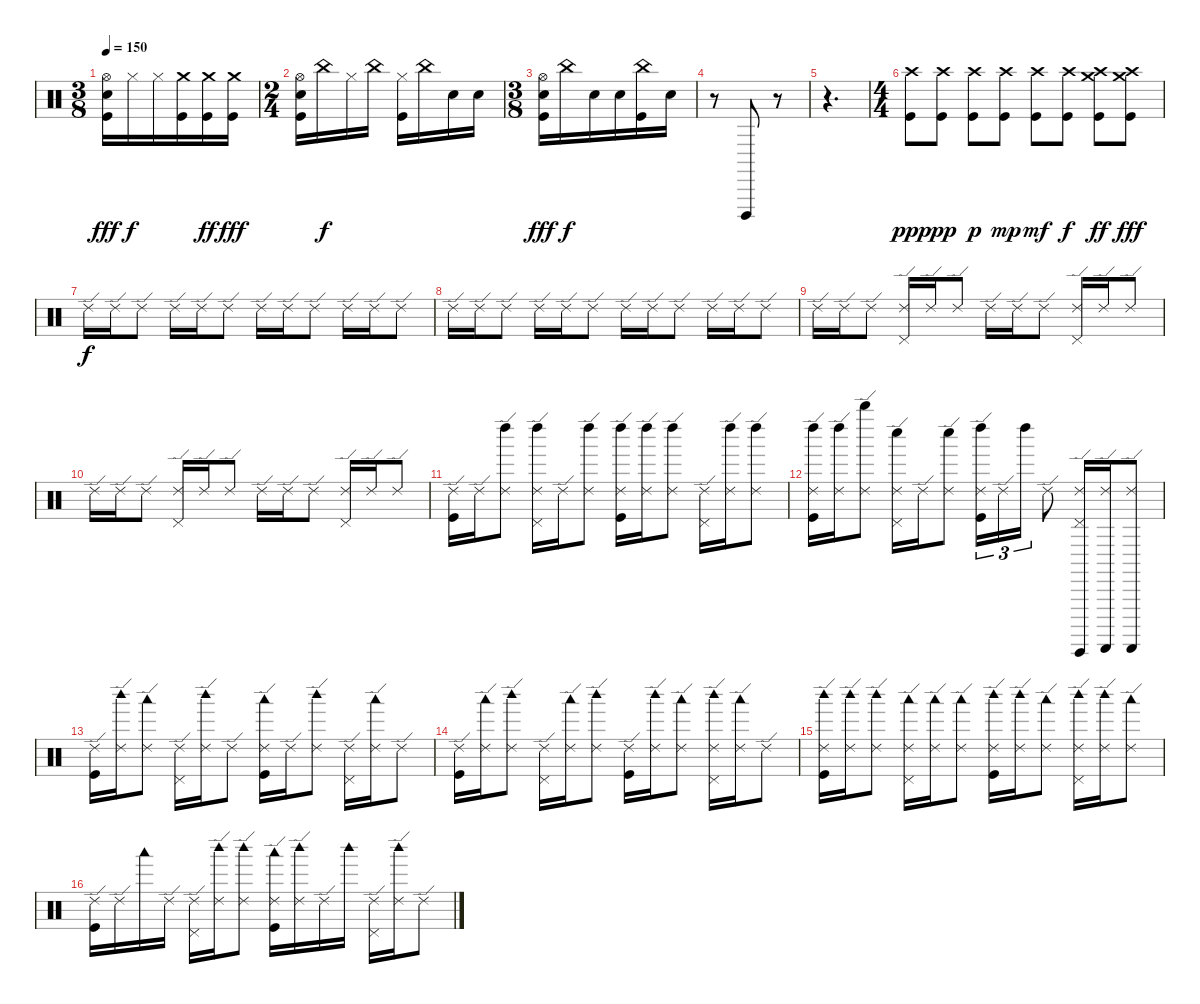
\track "" {instrument percussion}
\staff {score}
\articulation defaults
\ts (3 8)
\tempo 150
\clef neutral
\ks c
("Hi-Hat (open)" "Electric Snare (hit)" "Kick (hit)").16{dy fff} "Hi-Hat (closed)".16{dy f} "Hi-Hat (closed)".16 ("Crash medium (hit)" "Kick (hit)").16 ("Crash medium (hit)" "Kick (hit)").16{dy ff} ("Crash medium (hit)" "Kick (hit)").16{dy fff} |
\ts (2 4)
("Hi-Hat (open)" "Electric Snare (hit)" "Kick (hit)").16 "China (hit)".16{dy f} "Hi-Hat (closed)".16 "China (hit)".16 ("Hi-Hat (closed)" "Kick (hit)").16 "China (hit)".16 "Electric Snare (hit)".16 "Electric Snare (hit)".16 |
\ts (3 8)
("Hi-Hat (open)" "Electric Snare (hit)" "Kick (hit)").16{dy fff} "China (hit)".16{dy f} "Electric Snare (hit)".16 "Electric Snare (hit)".16 ("China (hit)" "Kick (hit)").16 "Electric Snare (hit)".16 |
r.8 "Cuica (open)".8 r.8 |
r.4{d} |
\ts (4 4)
("Crash high (hit)" "Kick (hit)").8{dy ppp} ("Crash high (hit)" "Kick (hit)").8{dy pp} ("Crash high (hit)" "Kick (hit)").8{dy p} ("Crash high (hit)" "Kick (hit)").8{dy mp} ("Crash high (hit)" "Kick (hit)").8{dy mf} ("Crash high (hit)" "Kick (hit)").8{dy f} ("Crash high (hit)" "Crash medium (hit)" "Kick (hit)").8{dy ff} ("Crash high (hit)" "Crash medium (hit)" "Kick (hit)").8{dy fff} |
"Ride (edge) 2".16{dy f volume 16} "Ride (edge) 2".16 "Ride (edge) 2".8 "Ride (edge) 2".16 "Ride (edge) 2".16 "Ride (edge) 2".8 "Ride (edge) 2".16 "Ride (edge) 2".16 "Ride (edge) 2".8 "Ride (edge) 2".16 "Ride (edge) 2".16 "Ride (edge) 2".8 |
"Ride (edge) 2".16 "Ride (edge) 2".16 "Ride (edge) 2".8 "Ride (edge) 2".16 "Ride (edge) 2".16 "Ride (edge) 2".8 "Ride (edge) 2".16 "Ride (edge) 2".16 "Ride (edge) 2".8 "Ride (edge) 2".16 "Ride (edge) 2".16 "Ride (edge) 2".8 |
"Ride (edge) 2".16 "Ride (edge) 2".16 "Ride (edge) 2".8 ("Ride (edge) 2" "Pedal Hi-Hat (hit)").16 "Ride (edge) 2".16 "Ride (edge) 2".8 "Ride (edge) 2".16 "Ride (edge) 2".16 "Ride (edge) 2".8 ("Ride (edge) 2" "Pedal Hi-Hat (hit)").16 "Ride (edge) 2".16 "Ride (edge) 2".8 |
"Ride (edge) 2".16 "Ride (edge) 2".16 "Ride (edge) 2".8 ("Ride (edge) 2" "Pedal Hi-Hat (hit)").16 "Ride (edge) 2".16 "Ride (edge) 2".8 "Ride (edge) 2".16 "Ride (edge) 2".16 "Ride (edge) 2".8 ("Ride (edge) 2" "Pedal Hi-Hat (hit)").16 "Ride (edge) 2".16 "Ride (edge) 2".8 |
("Ride (edge) 2" "Kick (hit)").16 "Ride (edge) 2".16 ("Ride (edge) 2" "Left Maraca (hit)").8 ("Ride (edge) 2" "Pedal Hi-Hat (hit)" "Left Maraca (hit)").16 "Ride (edge) 2".16 ("Ride (edge) 2" "Left Maraca (hit)").8 ("Ride (edge) 2" "Left Maraca (hit)" "Kick (hit)").16 ("Ride (edge) 2" "Left Maraca (hit)").16 ("Ride (edge) 2" "Left Maraca (hit)").8 ("Ride (edge) 2" "Pedal Hi-Hat (hit)").16 ("Ride (edge) 2" "Left Maraca (hit)").16 ("Ride (edge) 2" "Left Maraca (hit)").8 |
("Ride (edge) 2" "Left Maraca (hit)" "Kick (hit)").16 ("Ride (edge) 2" "Left Maraca (hit)").16 ("Ride (edge) 2" "Whistle high (hit)").8 ("Ride (edge) 2" "Pedal Hi-Hat (hit)" "Whistle low (hit)").16 "Ride (edge) 2".16 ("Ride (edge) 2" "Whistle low (hit)").8 ("Ride (edge) 2" "Left Maraca (hit)" "Kick (hit)").16{tu (3 2)} "Ride (edge) 2".16{tu (3 2)} "Left Maraca (hit)".16{tu (3 2)} "Ride (edge) 2".8 ("Ride (edge) 2" "Pedal Hi-Hat (hit)" "Guiro (hit)").16 ("Ride (edge) 2" "Guiro (scrap-return)").16 ("Ride (edge) 2" "Guiro (scrap-return)").8 |
("Ride (edge) 2" "Kick (hit)").16 ("Ride (edge) 2" "Woodblock high (hit)").16 ("Ride (edge) 2" "Woodblock low (hit)").8 ("Ride (edge) 2" "Pedal Hi-Hat (hit)").16 ("Ride (edge) 2" "Woodblock high (hit)").16 "Ride (edge) 2".8 ("Ride (edge) 2" "Woodblock low (hit)" "Kick (hit)").16 "Ride (edge) 2".16 ("Ride (edge) 2" "Woodblock high (hit)").8 ("Ride (edge) 2" "Pedal Hi-Hat (hit)").16 ("Ride (edge) 2" "Woodblock low (hit)").16 "Ride (edge) 2".8 |
("Ride (edge) 2" "Kick (hit)").16 ("Ride (edge) 2" "Woodblock low (hit)").16 ("Ride (edge) 2" "Woodblock high (hit)").8 ("Ride (edge) 2" "Pedal Hi-Hat (hit)").16 ("Ride (edge) 2" "Woodblock low (hit)").16 ("Ride (edge) 2" "Woodblock high (hit)").8 ("Ride (edge) 2" "Kick (hit)").16 ("Ride (edge) 2" "Woodblock high (hit)").16 ("Ride (edge) 2" "Woodblock low (hit)").8 ("Ride (edge) 2" "Pedal Hi-Hat (hit)" "Woodblock high (hit)").16 ("Ride (edge) 2" "Woodblock low (hit)").16 "Ride (edge) 2".8 |
("Ride (edge) 2" "Woodblock high (hit)" "Kick (hit)").16 ("Ride (edge) 2" "Woodblock high (hit)").16 ("Ride (edge) 2" "Woodblock high (hit)").8 ("Ride (edge) 2" "Pedal Hi-Hat (hit)" "Woodblock low (hit)").16 ("Ride (edge) 2" "Woodblock low (hit)").16 ("Ride (edge) 2" "Woodblock low (hit)").8 ("Ride (edge) 2" "Woodblock high (hit)" "Kick (hit)").16 ("Ride (edge) 2" "Woodblock high (hit)").16 ("Ride (edge) 2" "Woodblock low (hit)").8 ("Ride (edge) 2" "Pedal Hi-Hat (hit)" "Woodblock high (hit)").16 ("Ride (edge) 2" "Woodblock high (hit)").16 ("Ride (edge) 2" "Woodblock low (hit)").8 |
("Ride (edge) 2" "Kick (hit)").16 "Ride (edge) 2".16 "Woodblock low (hit)".16 "Ride (edge) 2".16 ("Ride (edge) 2" "Pedal Hi-Hat (hit)").16 ("Ride (edge) 2" "Woodblock high (hit)").16 ("Ride (edge) 2" "Woodblock high (hit)").8 ("Ride (edge) 2" "Woodblock low (hit)" "Kick (hit)").16 ("Ride (edge) 2" "Woodblock high (hit)").16 "Ride (edge) 2".16 "Woodblock high (hit)".16 ("Ride (edge) 2" "Pedal Hi-Hat (hit)").16 ("Ride (edge) 2" "Woodblock high (hit)").16 "Ride (edge) 2".8
